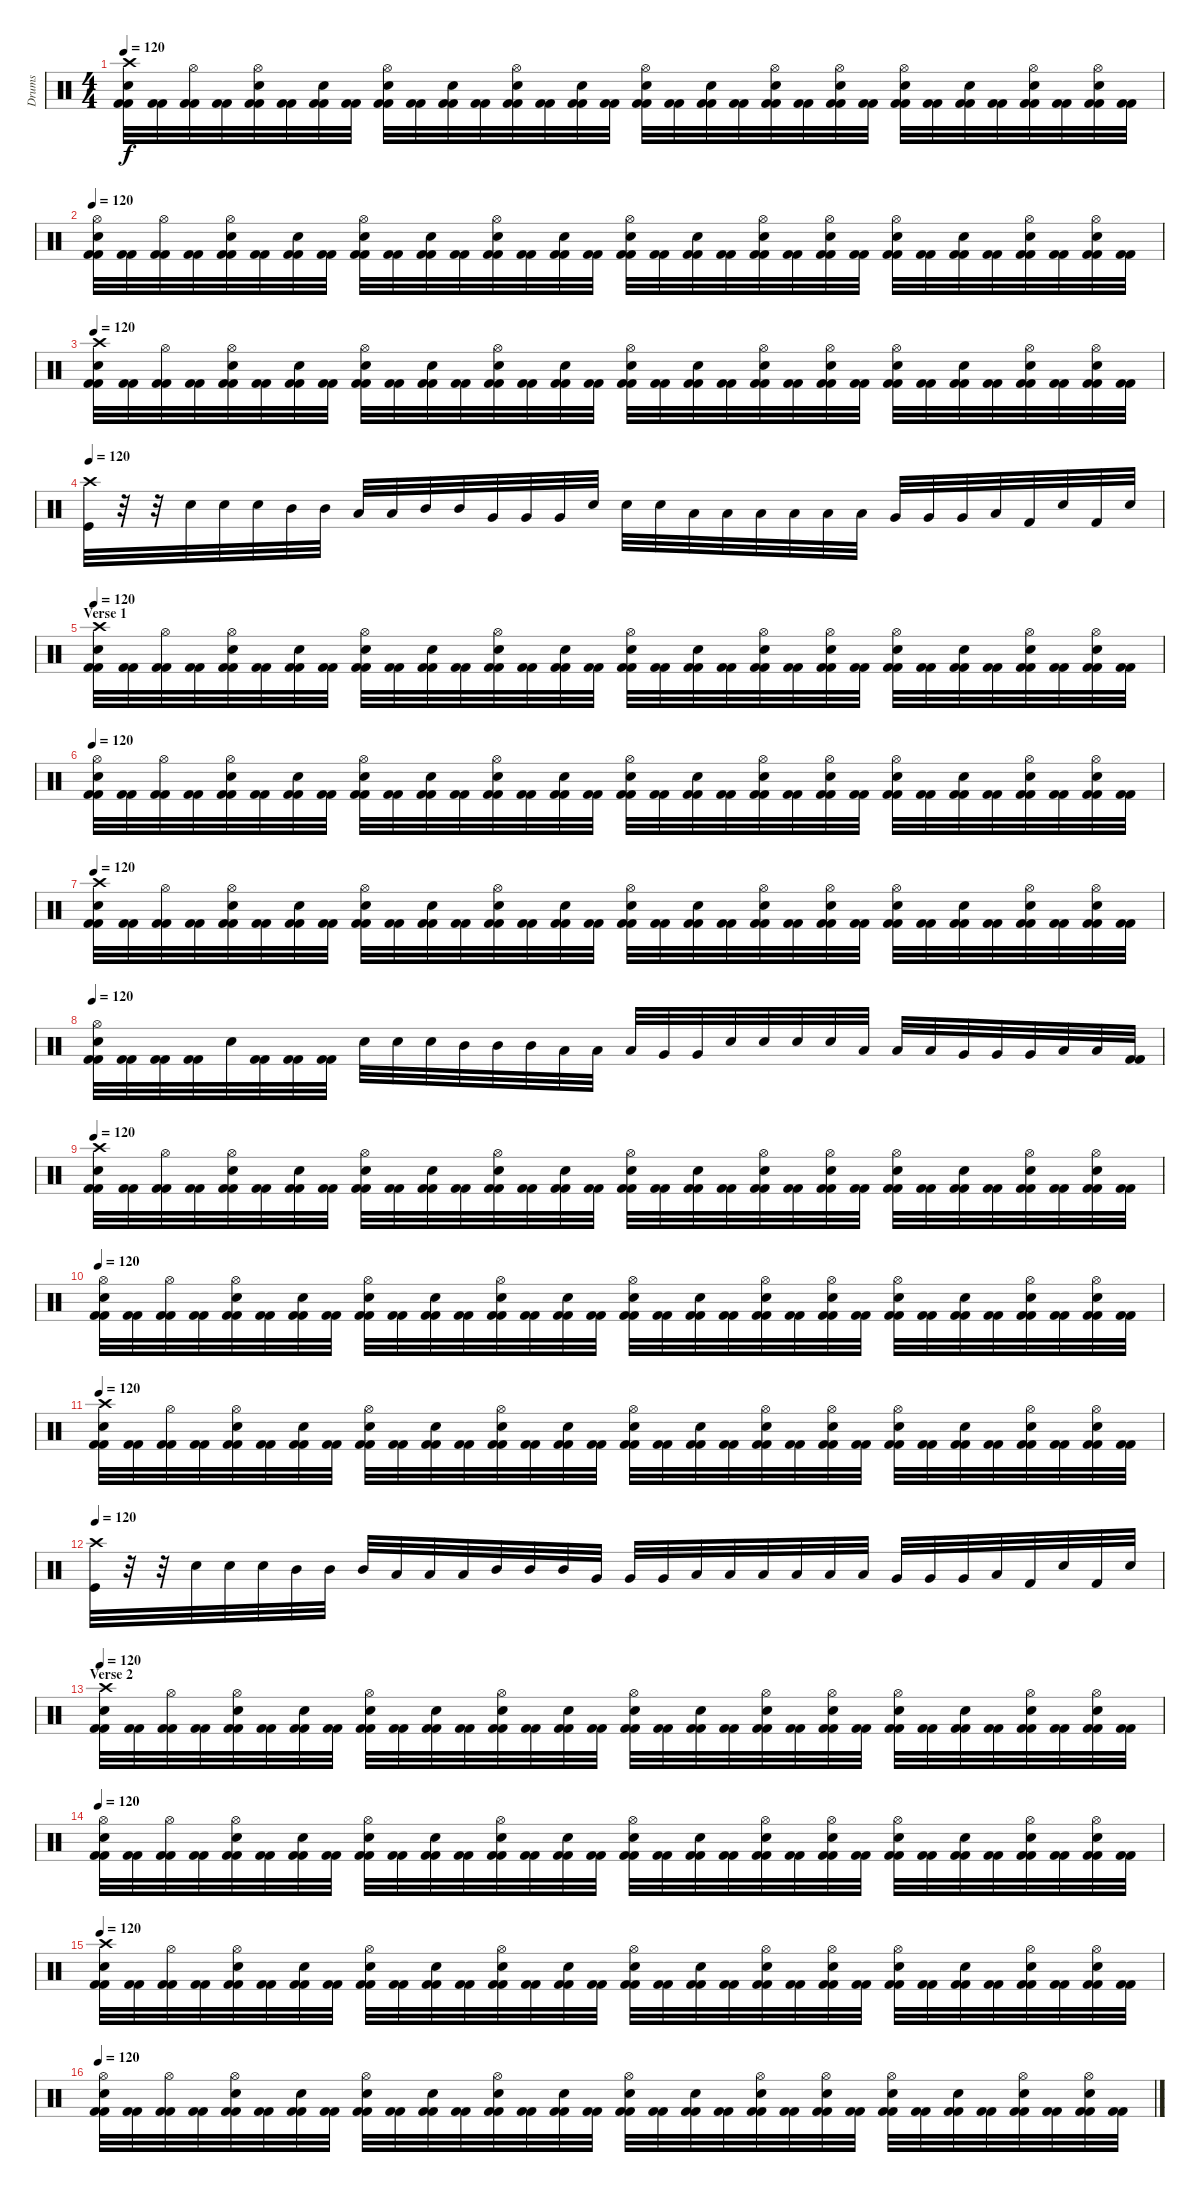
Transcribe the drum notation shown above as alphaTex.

\track ("Drums" "Drums") {instrument percussion}
\staff {score}
\articulation defaults
\ts (4 4)
\tempo 120
\clef neutral
\ks c
("Crash high (hit)" "Electric Snare (hit)" "Kick (hit) 2" "Kick (hit) 2").32{dy f} ("Kick (hit) 2" "Kick (hit) 2").32 ("Hi-Hat (open)" "Kick (hit) 2" "Kick (hit) 2").32 ("Kick (hit) 2" "Kick (hit) 2").32 ("Hi-Hat (open)" "Electric Snare (hit)" "Kick (hit) 2" "Kick (hit) 2").32 ("Kick (hit) 2" "Kick (hit) 2").32 ("Electric Snare (hit)" "Kick (hit) 2" "Kick (hit) 2").32 ("Kick (hit) 2" "Kick (hit) 2").32 ("Hi-Hat (open)" "Electric Snare (hit)" "Kick (hit) 2" "Kick (hit) 2").32 ("Kick (hit) 2" "Kick (hit) 2").32 ("Electric Snare (hit)" "Kick (hit) 2" "Kick (hit) 2").32 ("Kick (hit) 2" "Kick (hit) 2").32 ("Hi-Hat (open)" "Electric Snare (hit)" "Kick (hit) 2" "Kick (hit) 2").32 ("Kick (hit) 2" "Kick (hit) 2").32 ("Electric Snare (hit)" "Kick (hit) 2" "Kick (hit) 2").32 ("Kick (hit) 2" "Kick (hit) 2").32 ("Hi-Hat (open)" "Electric Snare (hit)" "Kick (hit) 2" "Kick (hit) 2").32 ("Kick (hit) 2" "Kick (hit) 2").32 ("Electric Snare (hit)" "Kick (hit) 2" "Kick (hit) 2").32 ("Kick (hit) 2" "Kick (hit) 2").32 ("Hi-Hat (open)" "Electric Snare (hit)" "Kick (hit) 2" "Kick (hit) 2").32 ("Kick (hit) 2" "Kick (hit) 2").32 ("Hi-Hat (open)" "Electric Snare (hit)" "Kick (hit) 2" "Kick (hit) 2").32 ("Kick (hit) 2" "Kick (hit) 2").32 ("Hi-Hat (open)" "Electric Snare (hit)" "Kick (hit) 2" "Kick (hit) 2").32 ("Kick (hit) 2" "Kick (hit) 2").32 ("Electric Snare (hit)" "Kick (hit) 2" "Kick (hit) 2").32 ("Kick (hit) 2" "Kick (hit) 2").32 ("Hi-Hat (open)" "Electric Snare (hit)" "Kick (hit) 2" "Kick (hit) 2").32 ("Kick (hit) 2" "Kick (hit) 2").32 ("Hi-Hat (open)" "Electric Snare (hit)" "Kick (hit) 2" "Kick (hit) 2").32 ("Kick (hit) 2" "Kick (hit) 2").32 |
\tempo 120
("Hi-Hat (open)" "Electric Snare (hit)" "Kick (hit) 2" "Kick (hit) 2").32 ("Kick (hit) 2" "Kick (hit) 2").32 ("Hi-Hat (open)" "Kick (hit) 2" "Kick (hit) 2").32 ("Kick (hit) 2" "Kick (hit) 2").32 ("Hi-Hat (open)" "Electric Snare (hit)" "Kick (hit) 2" "Kick (hit) 2").32 ("Kick (hit) 2" "Kick (hit) 2").32 ("Electric Snare (hit)" "Kick (hit) 2" "Kick (hit) 2").32 ("Kick (hit) 2" "Kick (hit) 2").32 ("Hi-Hat (open)" "Electric Snare (hit)" "Kick (hit) 2" "Kick (hit) 2").32 ("Kick (hit) 2" "Kick (hit) 2").32 ("Electric Snare (hit)" "Kick (hit) 2" "Kick (hit) 2").32 ("Kick (hit) 2" "Kick (hit) 2").32 ("Hi-Hat (open)" "Electric Snare (hit)" "Kick (hit) 2" "Kick (hit) 2").32 ("Kick (hit) 2" "Kick (hit) 2").32 ("Electric Snare (hit)" "Kick (hit) 2" "Kick (hit) 2").32 ("Kick (hit) 2" "Kick (hit) 2").32 ("Hi-Hat (open)" "Electric Snare (hit)" "Kick (hit) 2" "Kick (hit) 2").32 ("Kick (hit) 2" "Kick (hit) 2").32 ("Electric Snare (hit)" "Kick (hit) 2" "Kick (hit) 2").32 ("Kick (hit) 2" "Kick (hit) 2").32 ("Hi-Hat (open)" "Electric Snare (hit)" "Kick (hit) 2" "Kick (hit) 2").32 ("Kick (hit) 2" "Kick (hit) 2").32 ("Hi-Hat (open)" "Electric Snare (hit)" "Kick (hit) 2" "Kick (hit) 2").32 ("Kick (hit) 2" "Kick (hit) 2").32 ("Hi-Hat (open)" "Electric Snare (hit)" "Kick (hit) 2" "Kick (hit) 2").32 ("Kick (hit) 2" "Kick (hit) 2").32 ("Electric Snare (hit)" "Kick (hit) 2" "Kick (hit) 2").32 ("Kick (hit) 2" "Kick (hit) 2").32 ("Hi-Hat (open)" "Electric Snare (hit)" "Kick (hit) 2" "Kick (hit) 2").32 ("Kick (hit) 2" "Kick (hit) 2").32 ("Hi-Hat (open)" "Electric Snare (hit)" "Kick (hit) 2" "Kick (hit) 2").32 ("Kick (hit) 2" "Kick (hit) 2").32 |
\tempo 120
("Crash high (hit)" "Electric Snare (hit)" "Kick (hit) 2" "Kick (hit) 2").32 ("Kick (hit) 2" "Kick (hit) 2").32 ("Hi-Hat (open)" "Kick (hit) 2" "Kick (hit) 2").32 ("Kick (hit) 2" "Kick (hit) 2").32 ("Hi-Hat (open)" "Electric Snare (hit)" "Kick (hit) 2" "Kick (hit) 2").32 ("Kick (hit) 2" "Kick (hit) 2").32 ("Electric Snare (hit)" "Kick (hit) 2" "Kick (hit) 2").32 ("Kick (hit) 2" "Kick (hit) 2").32 ("Hi-Hat (open)" "Electric Snare (hit)" "Kick (hit) 2" "Kick (hit) 2").32 ("Kick (hit) 2" "Kick (hit) 2").32 ("Electric Snare (hit)" "Kick (hit) 2" "Kick (hit) 2").32 ("Kick (hit) 2" "Kick (hit) 2").32 ("Hi-Hat (open)" "Electric Snare (hit)" "Kick (hit) 2" "Kick (hit) 2").32 ("Kick (hit) 2" "Kick (hit) 2").32 ("Electric Snare (hit)" "Kick (hit) 2" "Kick (hit) 2").32 ("Kick (hit) 2" "Kick (hit) 2").32 ("Hi-Hat (open)" "Electric Snare (hit)" "Kick (hit) 2" "Kick (hit) 2").32 ("Kick (hit) 2" "Kick (hit) 2").32 ("Electric Snare (hit)" "Kick (hit) 2" "Kick (hit) 2").32 ("Kick (hit) 2" "Kick (hit) 2").32 ("Hi-Hat (open)" "Electric Snare (hit)" "Kick (hit) 2" "Kick (hit) 2").32 ("Kick (hit) 2" "Kick (hit) 2").32 ("Hi-Hat (open)" "Electric Snare (hit)" "Kick (hit) 2" "Kick (hit) 2").32 ("Kick (hit) 2" "Kick (hit) 2").32 ("Hi-Hat (open)" "Electric Snare (hit)" "Kick (hit) 2" "Kick (hit) 2").32 ("Kick (hit) 2" "Kick (hit) 2").32 ("Electric Snare (hit)" "Kick (hit) 2" "Kick (hit) 2").32 ("Kick (hit) 2" "Kick (hit) 2").32 ("Hi-Hat (open)" "Electric Snare (hit)" "Kick (hit) 2" "Kick (hit) 2").32 ("Kick (hit) 2" "Kick (hit) 2").32 ("Hi-Hat (open)" "Electric Snare (hit)" "Kick (hit) 2" "Kick (hit) 2").32 ("Kick (hit) 2" "Kick (hit) 2").32 |
\tempo 120
("Crash high (hit)" "Kick (hit)").32 r.32 r.32 "Electric Snare (hit)".32 "Electric Snare (hit)".32 "Electric Snare (hit)".32 "Mid Tom (hit)".32 "Mid Tom (hit)".32 "Low Tom (hit)".32 "Low Tom (hit)".32 "Mid Tom (hit)".32 "Mid Tom (hit)".32 "Very Low Tom (hit)".32 "Very Low Tom (hit)".32 "Very Low Tom (hit)".32 "Electric Snare (hit)".32 "Electric Snare (hit)".32 "Electric Snare (hit)".32 "Low Tom (hit)".32 "Low Tom (hit)".32 "Low Tom (hit)".32 "Low Floor Tom (hit)".32 "Low Floor Tom (hit)".32 "Low Floor Tom (hit)".32 "Very Low Tom (hit)".32 "Very Low Tom (hit)".32 "Very Low Tom (hit)".32 "Low Floor Tom (hit)".32 "Kick (hit) 2".32 "Electric Snare (hit)".32 "Kick (hit) 2".32 "Electric Snare (hit)".32 |
\section ("" "Verse 1")
\tempo 120
("Crash high (hit)" "Electric Snare (hit)" "Kick (hit) 2" "Kick (hit) 2").32 ("Kick (hit) 2" "Kick (hit) 2").32 ("Hi-Hat (open)" "Kick (hit) 2" "Kick (hit) 2").32 ("Kick (hit) 2" "Kick (hit) 2").32 ("Hi-Hat (open)" "Electric Snare (hit)" "Kick (hit) 2" "Kick (hit) 2").32 ("Kick (hit) 2" "Kick (hit) 2").32 ("Electric Snare (hit)" "Kick (hit) 2" "Kick (hit) 2").32 ("Kick (hit) 2" "Kick (hit) 2").32 ("Hi-Hat (open)" "Electric Snare (hit)" "Kick (hit) 2" "Kick (hit) 2").32 ("Kick (hit) 2" "Kick (hit) 2").32 ("Electric Snare (hit)" "Kick (hit) 2" "Kick (hit) 2").32 ("Kick (hit) 2" "Kick (hit) 2").32 ("Hi-Hat (open)" "Electric Snare (hit)" "Kick (hit) 2" "Kick (hit) 2").32 ("Kick (hit) 2" "Kick (hit) 2").32 ("Electric Snare (hit)" "Kick (hit) 2" "Kick (hit) 2").32 ("Kick (hit) 2" "Kick (hit) 2").32 ("Hi-Hat (open)" "Electric Snare (hit)" "Kick (hit) 2" "Kick (hit) 2").32 ("Kick (hit) 2" "Kick (hit) 2").32 ("Electric Snare (hit)" "Kick (hit) 2" "Kick (hit) 2").32 ("Kick (hit) 2" "Kick (hit) 2").32 ("Hi-Hat (open)" "Electric Snare (hit)" "Kick (hit) 2" "Kick (hit) 2").32 ("Kick (hit) 2" "Kick (hit) 2").32 ("Hi-Hat (open)" "Electric Snare (hit)" "Kick (hit) 2" "Kick (hit) 2").32 ("Kick (hit) 2" "Kick (hit) 2").32 ("Hi-Hat (open)" "Electric Snare (hit)" "Kick (hit) 2" "Kick (hit) 2").32 ("Kick (hit) 2" "Kick (hit) 2").32 ("Electric Snare (hit)" "Kick (hit) 2" "Kick (hit) 2").32 ("Kick (hit) 2" "Kick (hit) 2").32 ("Hi-Hat (open)" "Electric Snare (hit)" "Kick (hit) 2" "Kick (hit) 2").32 ("Kick (hit) 2" "Kick (hit) 2").32 ("Hi-Hat (open)" "Electric Snare (hit)" "Kick (hit) 2" "Kick (hit) 2").32 ("Kick (hit) 2" "Kick (hit) 2").32 |
\tempo 120
("Hi-Hat (open)" "Electric Snare (hit)" "Kick (hit) 2" "Kick (hit) 2").32 ("Kick (hit) 2" "Kick (hit) 2").32 ("Hi-Hat (open)" "Kick (hit) 2" "Kick (hit) 2").32 ("Kick (hit) 2" "Kick (hit) 2").32 ("Hi-Hat (open)" "Electric Snare (hit)" "Kick (hit) 2" "Kick (hit) 2").32 ("Kick (hit) 2" "Kick (hit) 2").32 ("Electric Snare (hit)" "Kick (hit) 2" "Kick (hit) 2").32 ("Kick (hit) 2" "Kick (hit) 2").32 ("Hi-Hat (open)" "Electric Snare (hit)" "Kick (hit) 2" "Kick (hit) 2").32 ("Kick (hit) 2" "Kick (hit) 2").32 ("Electric Snare (hit)" "Kick (hit) 2" "Kick (hit) 2").32 ("Kick (hit) 2" "Kick (hit) 2").32 ("Hi-Hat (open)" "Electric Snare (hit)" "Kick (hit) 2" "Kick (hit) 2").32 ("Kick (hit) 2" "Kick (hit) 2").32 ("Electric Snare (hit)" "Kick (hit) 2" "Kick (hit) 2").32 ("Kick (hit) 2" "Kick (hit) 2").32 ("Hi-Hat (open)" "Electric Snare (hit)" "Kick (hit) 2" "Kick (hit) 2").32 ("Kick (hit) 2" "Kick (hit) 2").32 ("Electric Snare (hit)" "Kick (hit) 2" "Kick (hit) 2").32 ("Kick (hit) 2" "Kick (hit) 2").32 ("Hi-Hat (open)" "Electric Snare (hit)" "Kick (hit) 2" "Kick (hit) 2").32 ("Kick (hit) 2" "Kick (hit) 2").32 ("Hi-Hat (open)" "Electric Snare (hit)" "Kick (hit) 2" "Kick (hit) 2").32 ("Kick (hit) 2" "Kick (hit) 2").32 ("Hi-Hat (open)" "Electric Snare (hit)" "Kick (hit) 2" "Kick (hit) 2").32 ("Kick (hit) 2" "Kick (hit) 2").32 ("Electric Snare (hit)" "Kick (hit) 2" "Kick (hit) 2").32 ("Kick (hit) 2" "Kick (hit) 2").32 ("Hi-Hat (open)" "Electric Snare (hit)" "Kick (hit) 2" "Kick (hit) 2").32 ("Kick (hit) 2" "Kick (hit) 2").32 ("Hi-Hat (open)" "Electric Snare (hit)" "Kick (hit) 2" "Kick (hit) 2").32 ("Kick (hit) 2" "Kick (hit) 2").32 |
\tempo 120
("Crash high (hit)" "Electric Snare (hit)" "Kick (hit) 2" "Kick (hit) 2").32 ("Kick (hit) 2" "Kick (hit) 2").32 ("Hi-Hat (open)" "Kick (hit) 2" "Kick (hit) 2").32 ("Kick (hit) 2" "Kick (hit) 2").32 ("Hi-Hat (open)" "Electric Snare (hit)" "Kick (hit) 2" "Kick (hit) 2").32 ("Kick (hit) 2" "Kick (hit) 2").32 ("Electric Snare (hit)" "Kick (hit) 2" "Kick (hit) 2").32 ("Kick (hit) 2" "Kick (hit) 2").32 ("Hi-Hat (open)" "Electric Snare (hit)" "Kick (hit) 2" "Kick (hit) 2").32 ("Kick (hit) 2" "Kick (hit) 2").32 ("Electric Snare (hit)" "Kick (hit) 2" "Kick (hit) 2").32 ("Kick (hit) 2" "Kick (hit) 2").32 ("Hi-Hat (open)" "Electric Snare (hit)" "Kick (hit) 2" "Kick (hit) 2").32 ("Kick (hit) 2" "Kick (hit) 2").32 ("Electric Snare (hit)" "Kick (hit) 2" "Kick (hit) 2").32 ("Kick (hit) 2" "Kick (hit) 2").32 ("Hi-Hat (open)" "Electric Snare (hit)" "Kick (hit) 2" "Kick (hit) 2").32 ("Kick (hit) 2" "Kick (hit) 2").32 ("Electric Snare (hit)" "Kick (hit) 2" "Kick (hit) 2").32 ("Kick (hit) 2" "Kick (hit) 2").32 ("Hi-Hat (open)" "Electric Snare (hit)" "Kick (hit) 2" "Kick (hit) 2").32 ("Kick (hit) 2" "Kick (hit) 2").32 ("Hi-Hat (open)" "Electric Snare (hit)" "Kick (hit) 2" "Kick (hit) 2").32 ("Kick (hit) 2" "Kick (hit) 2").32 ("Hi-Hat (open)" "Electric Snare (hit)" "Kick (hit) 2" "Kick (hit) 2").32 ("Kick (hit) 2" "Kick (hit) 2").32 ("Electric Snare (hit)" "Kick (hit) 2" "Kick (hit) 2").32 ("Kick (hit) 2" "Kick (hit) 2").32 ("Hi-Hat (open)" "Electric Snare (hit)" "Kick (hit) 2" "Kick (hit) 2").32 ("Kick (hit) 2" "Kick (hit) 2").32 ("Hi-Hat (open)" "Electric Snare (hit)" "Kick (hit) 2" "Kick (hit) 2").32 ("Kick (hit) 2" "Kick (hit) 2").32 |
\tempo 120
("Hi-Hat (open)" "Electric Snare (hit)" "Kick (hit) 2" "Kick (hit) 2").32 ("Kick (hit) 2" "Kick (hit) 2").32 ("Kick (hit) 2" "Kick (hit) 2").32 ("Kick (hit) 2" "Kick (hit) 2").32 "Electric Snare (hit)".32 ("Kick (hit) 2" "Kick (hit) 2").32 ("Kick (hit) 2" "Kick (hit) 2").32 ("Kick (hit) 2" "Kick (hit) 2").32 "Electric Snare (hit)".32 "Electric Snare (hit)".32 "Electric Snare (hit)".32 "Mid Tom (hit)".32 "Mid Tom (hit)".32 "Mid Tom (hit)".32 "Low Tom (hit)".32 "Low Tom (hit)".32 "Low Tom (hit)".32 "Very Low Tom (hit)".32 "Very Low Tom (hit)".32 "Electric Snare (hit)".32 "Electric Snare (hit)".32 "Electric Snare (hit)".32 "Electric Snare (hit)".32 "Low Tom (hit)".32 "Low Tom (hit)".32 "Low Tom (hit)".32 "Very Low Tom (hit)".32 "Very Low Tom (hit)".32 "Very Low Tom (hit)".32 "Low Floor Tom (hit)".32 "Low Floor Tom (hit)".32 ("Kick (hit) 2" "Kick (hit) 2").32 |
\tempo 120
("Crash high (hit)" "Electric Snare (hit)" "Kick (hit) 2" "Kick (hit) 2").32 ("Kick (hit) 2" "Kick (hit) 2").32 ("Hi-Hat (open)" "Kick (hit) 2" "Kick (hit) 2").32 ("Kick (hit) 2" "Kick (hit) 2").32 ("Hi-Hat (open)" "Electric Snare (hit)" "Kick (hit) 2" "Kick (hit) 2").32 ("Kick (hit) 2" "Kick (hit) 2").32 ("Electric Snare (hit)" "Kick (hit) 2" "Kick (hit) 2").32 ("Kick (hit) 2" "Kick (hit) 2").32 ("Hi-Hat (open)" "Electric Snare (hit)" "Kick (hit) 2" "Kick (hit) 2").32 ("Kick (hit) 2" "Kick (hit) 2").32 ("Electric Snare (hit)" "Kick (hit) 2" "Kick (hit) 2").32 ("Kick (hit) 2" "Kick (hit) 2").32 ("Hi-Hat (open)" "Electric Snare (hit)" "Kick (hit) 2" "Kick (hit) 2").32 ("Kick (hit) 2" "Kick (hit) 2").32 ("Electric Snare (hit)" "Kick (hit) 2" "Kick (hit) 2").32 ("Kick (hit) 2" "Kick (hit) 2").32 ("Hi-Hat (open)" "Electric Snare (hit)" "Kick (hit) 2" "Kick (hit) 2").32 ("Kick (hit) 2" "Kick (hit) 2").32 ("Electric Snare (hit)" "Kick (hit) 2" "Kick (hit) 2").32 ("Kick (hit) 2" "Kick (hit) 2").32 ("Hi-Hat (open)" "Electric Snare (hit)" "Kick (hit) 2" "Kick (hit) 2").32 ("Kick (hit) 2" "Kick (hit) 2").32 ("Hi-Hat (open)" "Electric Snare (hit)" "Kick (hit) 2" "Kick (hit) 2").32 ("Kick (hit) 2" "Kick (hit) 2").32 ("Hi-Hat (open)" "Electric Snare (hit)" "Kick (hit) 2" "Kick (hit) 2").32 ("Kick (hit) 2" "Kick (hit) 2").32 ("Electric Snare (hit)" "Kick (hit) 2" "Kick (hit) 2").32 ("Kick (hit) 2" "Kick (hit) 2").32 ("Hi-Hat (open)" "Electric Snare (hit)" "Kick (hit) 2" "Kick (hit) 2").32 ("Kick (hit) 2" "Kick (hit) 2").32 ("Hi-Hat (open)" "Electric Snare (hit)" "Kick (hit) 2" "Kick (hit) 2").32 ("Kick (hit) 2" "Kick (hit) 2").32 |
\tempo 120
("Hi-Hat (open)" "Electric Snare (hit)" "Kick (hit) 2" "Kick (hit) 2").32 ("Kick (hit) 2" "Kick (hit) 2").32 ("Hi-Hat (open)" "Kick (hit) 2" "Kick (hit) 2").32 ("Kick (hit) 2" "Kick (hit) 2").32 ("Hi-Hat (open)" "Electric Snare (hit)" "Kick (hit) 2" "Kick (hit) 2").32 ("Kick (hit) 2" "Kick (hit) 2").32 ("Electric Snare (hit)" "Kick (hit) 2" "Kick (hit) 2").32 ("Kick (hit) 2" "Kick (hit) 2").32 ("Hi-Hat (open)" "Electric Snare (hit)" "Kick (hit) 2" "Kick (hit) 2").32 ("Kick (hit) 2" "Kick (hit) 2").32 ("Electric Snare (hit)" "Kick (hit) 2" "Kick (hit) 2").32 ("Kick (hit) 2" "Kick (hit) 2").32 ("Hi-Hat (open)" "Electric Snare (hit)" "Kick (hit) 2" "Kick (hit) 2").32 ("Kick (hit) 2" "Kick (hit) 2").32 ("Electric Snare (hit)" "Kick (hit) 2" "Kick (hit) 2").32 ("Kick (hit) 2" "Kick (hit) 2").32 ("Hi-Hat (open)" "Electric Snare (hit)" "Kick (hit) 2" "Kick (hit) 2").32 ("Kick (hit) 2" "Kick (hit) 2").32 ("Electric Snare (hit)" "Kick (hit) 2" "Kick (hit) 2").32 ("Kick (hit) 2" "Kick (hit) 2").32 ("Hi-Hat (open)" "Electric Snare (hit)" "Kick (hit) 2" "Kick (hit) 2").32 ("Kick (hit) 2" "Kick (hit) 2").32 ("Hi-Hat (open)" "Electric Snare (hit)" "Kick (hit) 2" "Kick (hit) 2").32 ("Kick (hit) 2" "Kick (hit) 2").32 ("Hi-Hat (open)" "Electric Snare (hit)" "Kick (hit) 2" "Kick (hit) 2").32 ("Kick (hit) 2" "Kick (hit) 2").32 ("Electric Snare (hit)" "Kick (hit) 2" "Kick (hit) 2").32 ("Kick (hit) 2" "Kick (hit) 2").32 ("Hi-Hat (open)" "Electric Snare (hit)" "Kick (hit) 2" "Kick (hit) 2").32 ("Kick (hit) 2" "Kick (hit) 2").32 ("Hi-Hat (open)" "Electric Snare (hit)" "Kick (hit) 2" "Kick (hit) 2").32 ("Kick (hit) 2" "Kick (hit) 2").32 |
\tempo 120
("Crash high (hit)" "Electric Snare (hit)" "Kick (hit) 2" "Kick (hit) 2").32 ("Kick (hit) 2" "Kick (hit) 2").32 ("Hi-Hat (open)" "Kick (hit) 2" "Kick (hit) 2").32 ("Kick (hit) 2" "Kick (hit) 2").32 ("Hi-Hat (open)" "Electric Snare (hit)" "Kick (hit) 2" "Kick (hit) 2").32 ("Kick (hit) 2" "Kick (hit) 2").32 ("Electric Snare (hit)" "Kick (hit) 2" "Kick (hit) 2").32 ("Kick (hit) 2" "Kick (hit) 2").32 ("Hi-Hat (open)" "Electric Snare (hit)" "Kick (hit) 2" "Kick (hit) 2").32 ("Kick (hit) 2" "Kick (hit) 2").32 ("Electric Snare (hit)" "Kick (hit) 2" "Kick (hit) 2").32 ("Kick (hit) 2" "Kick (hit) 2").32 ("Hi-Hat (open)" "Electric Snare (hit)" "Kick (hit) 2" "Kick (hit) 2").32 ("Kick (hit) 2" "Kick (hit) 2").32 ("Electric Snare (hit)" "Kick (hit) 2" "Kick (hit) 2").32 ("Kick (hit) 2" "Kick (hit) 2").32 ("Hi-Hat (open)" "Electric Snare (hit)" "Kick (hit) 2" "Kick (hit) 2").32 ("Kick (hit) 2" "Kick (hit) 2").32 ("Electric Snare (hit)" "Kick (hit) 2" "Kick (hit) 2").32 ("Kick (hit) 2" "Kick (hit) 2").32 ("Hi-Hat (open)" "Electric Snare (hit)" "Kick (hit) 2" "Kick (hit) 2").32 ("Kick (hit) 2" "Kick (hit) 2").32 ("Hi-Hat (open)" "Electric Snare (hit)" "Kick (hit) 2" "Kick (hit) 2").32 ("Kick (hit) 2" "Kick (hit) 2").32 ("Hi-Hat (open)" "Electric Snare (hit)" "Kick (hit) 2" "Kick (hit) 2").32 ("Kick (hit) 2" "Kick (hit) 2").32 ("Electric Snare (hit)" "Kick (hit) 2" "Kick (hit) 2").32 ("Kick (hit) 2" "Kick (hit) 2").32 ("Hi-Hat (open)" "Electric Snare (hit)" "Kick (hit) 2" "Kick (hit) 2").32 ("Kick (hit) 2" "Kick (hit) 2").32 ("Hi-Hat (open)" "Electric Snare (hit)" "Kick (hit) 2" "Kick (hit) 2").32 ("Kick (hit) 2" "Kick (hit) 2").32 |
\tempo 120
("Crash high (hit)" "Kick (hit)").32 r.32 r.32 "Electric Snare (hit)".32 "Electric Snare (hit)".32 "Electric Snare (hit)".32 "Mid Tom (hit)".32 "Mid Tom (hit)".32 "Mid Tom (hit)".32 "Low Tom (hit)".32 "Low Tom (hit)".32 "Low Tom (hit)".32 "Mid Tom (hit)".32 "Mid Tom (hit)".32 "Mid Tom (hit)".32 "Very Low Tom (hit)".32 "Very Low Tom (hit)".32 "Very Low Tom (hit)".32 "Low Tom (hit)".32 "Low Tom (hit)".32 "Low Tom (hit)".32 "Low Floor Tom (hit)".32 "Low Floor Tom (hit)".32 "Low Floor Tom (hit)".32 "Very Low Tom (hit)".32 "Very Low Tom (hit)".32 "Very Low Tom (hit)".32 "Low Floor Tom (hit)".32 "Kick (hit) 2".32 "Electric Snare (hit)".32 "Kick (hit) 2".32 "Electric Snare (hit)".32 |
\section ("" "Verse 2")
\tempo 120
("Crash high (hit)" "Electric Snare (hit)" "Kick (hit) 2" "Kick (hit) 2").32 ("Kick (hit) 2" "Kick (hit) 2").32 ("Hi-Hat (open)" "Kick (hit) 2" "Kick (hit) 2").32 ("Kick (hit) 2" "Kick (hit) 2").32 ("Hi-Hat (open)" "Electric Snare (hit)" "Kick (hit) 2" "Kick (hit) 2").32 ("Kick (hit) 2" "Kick (hit) 2").32 ("Electric Snare (hit)" "Kick (hit) 2" "Kick (hit) 2").32 ("Kick (hit) 2" "Kick (hit) 2").32 ("Hi-Hat (open)" "Electric Snare (hit)" "Kick (hit) 2" "Kick (hit) 2").32 ("Kick (hit) 2" "Kick (hit) 2").32 ("Electric Snare (hit)" "Kick (hit) 2" "Kick (hit) 2").32 ("Kick (hit) 2" "Kick (hit) 2").32 ("Hi-Hat (open)" "Electric Snare (hit)" "Kick (hit) 2" "Kick (hit) 2").32 ("Kick (hit) 2" "Kick (hit) 2").32 ("Electric Snare (hit)" "Kick (hit) 2" "Kick (hit) 2").32 ("Kick (hit) 2" "Kick (hit) 2").32 ("Hi-Hat (open)" "Electric Snare (hit)" "Kick (hit) 2" "Kick (hit) 2").32 ("Kick (hit) 2" "Kick (hit) 2").32 ("Electric Snare (hit)" "Kick (hit) 2" "Kick (hit) 2").32 ("Kick (hit) 2" "Kick (hit) 2").32 ("Hi-Hat (open)" "Electric Snare (hit)" "Kick (hit) 2" "Kick (hit) 2").32 ("Kick (hit) 2" "Kick (hit) 2").32 ("Hi-Hat (open)" "Electric Snare (hit)" "Kick (hit) 2" "Kick (hit) 2").32 ("Kick (hit) 2" "Kick (hit) 2").32 ("Hi-Hat (open)" "Electric Snare (hit)" "Kick (hit) 2" "Kick (hit) 2").32 ("Kick (hit) 2" "Kick (hit) 2").32 ("Electric Snare (hit)" "Kick (hit) 2" "Kick (hit) 2").32 ("Kick (hit) 2" "Kick (hit) 2").32 ("Hi-Hat (open)" "Electric Snare (hit)" "Kick (hit) 2" "Kick (hit) 2").32 ("Kick (hit) 2" "Kick (hit) 2").32 ("Hi-Hat (open)" "Electric Snare (hit)" "Kick (hit) 2" "Kick (hit) 2").32 ("Kick (hit) 2" "Kick (hit) 2").32 |
\tempo 120
("Hi-Hat (open)" "Electric Snare (hit)" "Kick (hit) 2" "Kick (hit) 2").32 ("Kick (hit) 2" "Kick (hit) 2").32 ("Hi-Hat (open)" "Kick (hit) 2" "Kick (hit) 2").32 ("Kick (hit) 2" "Kick (hit) 2").32 ("Hi-Hat (open)" "Electric Snare (hit)" "Kick (hit) 2" "Kick (hit) 2").32 ("Kick (hit) 2" "Kick (hit) 2").32 ("Electric Snare (hit)" "Kick (hit) 2" "Kick (hit) 2").32 ("Kick (hit) 2" "Kick (hit) 2").32 ("Hi-Hat (open)" "Electric Snare (hit)" "Kick (hit) 2" "Kick (hit) 2").32 ("Kick (hit) 2" "Kick (hit) 2").32 ("Electric Snare (hit)" "Kick (hit) 2" "Kick (hit) 2").32 ("Kick (hit) 2" "Kick (hit) 2").32 ("Hi-Hat (open)" "Electric Snare (hit)" "Kick (hit) 2" "Kick (hit) 2").32 ("Kick (hit) 2" "Kick (hit) 2").32 ("Electric Snare (hit)" "Kick (hit) 2" "Kick (hit) 2").32 ("Kick (hit) 2" "Kick (hit) 2").32 ("Hi-Hat (open)" "Electric Snare (hit)" "Kick (hit) 2" "Kick (hit) 2").32 ("Kick (hit) 2" "Kick (hit) 2").32 ("Electric Snare (hit)" "Kick (hit) 2" "Kick (hit) 2").32 ("Kick (hit) 2" "Kick (hit) 2").32 ("Hi-Hat (open)" "Electric Snare (hit)" "Kick (hit) 2" "Kick (hit) 2").32 ("Kick (hit) 2" "Kick (hit) 2").32 ("Hi-Hat (open)" "Electric Snare (hit)" "Kick (hit) 2" "Kick (hit) 2").32 ("Kick (hit) 2" "Kick (hit) 2").32 ("Hi-Hat (open)" "Electric Snare (hit)" "Kick (hit) 2" "Kick (hit) 2").32 ("Kick (hit) 2" "Kick (hit) 2").32 ("Electric Snare (hit)" "Kick (hit) 2" "Kick (hit) 2").32 ("Kick (hit) 2" "Kick (hit) 2").32 ("Hi-Hat (open)" "Electric Snare (hit)" "Kick (hit) 2" "Kick (hit) 2").32 ("Kick (hit) 2" "Kick (hit) 2").32 ("Hi-Hat (open)" "Electric Snare (hit)" "Kick (hit) 2" "Kick (hit) 2").32 ("Kick (hit) 2" "Kick (hit) 2").32 |
\tempo 120
("Crash high (hit)" "Electric Snare (hit)" "Kick (hit) 2" "Kick (hit) 2").32 ("Kick (hit) 2" "Kick (hit) 2").32 ("Hi-Hat (open)" "Kick (hit) 2" "Kick (hit) 2").32 ("Kick (hit) 2" "Kick (hit) 2").32 ("Hi-Hat (open)" "Electric Snare (hit)" "Kick (hit) 2" "Kick (hit) 2").32 ("Kick (hit) 2" "Kick (hit) 2").32 ("Electric Snare (hit)" "Kick (hit) 2" "Kick (hit) 2").32 ("Kick (hit) 2" "Kick (hit) 2").32 ("Hi-Hat (open)" "Electric Snare (hit)" "Kick (hit) 2" "Kick (hit) 2").32 ("Kick (hit) 2" "Kick (hit) 2").32 ("Electric Snare (hit)" "Kick (hit) 2" "Kick (hit) 2").32 ("Kick (hit) 2" "Kick (hit) 2").32 ("Hi-Hat (open)" "Electric Snare (hit)" "Kick (hit) 2" "Kick (hit) 2").32 ("Kick (hit) 2" "Kick (hit) 2").32 ("Electric Snare (hit)" "Kick (hit) 2" "Kick (hit) 2").32 ("Kick (hit) 2" "Kick (hit) 2").32 ("Hi-Hat (open)" "Electric Snare (hit)" "Kick (hit) 2" "Kick (hit) 2").32 ("Kick (hit) 2" "Kick (hit) 2").32 ("Electric Snare (hit)" "Kick (hit) 2" "Kick (hit) 2").32 ("Kick (hit) 2" "Kick (hit) 2").32 ("Hi-Hat (open)" "Electric Snare (hit)" "Kick (hit) 2" "Kick (hit) 2").32 ("Kick (hit) 2" "Kick (hit) 2").32 ("Hi-Hat (open)" "Electric Snare (hit)" "Kick (hit) 2" "Kick (hit) 2").32 ("Kick (hit) 2" "Kick (hit) 2").32 ("Hi-Hat (open)" "Electric Snare (hit)" "Kick (hit) 2" "Kick (hit) 2").32 ("Kick (hit) 2" "Kick (hit) 2").32 ("Electric Snare (hit)" "Kick (hit) 2" "Kick (hit) 2").32 ("Kick (hit) 2" "Kick (hit) 2").32 ("Hi-Hat (open)" "Electric Snare (hit)" "Kick (hit) 2" "Kick (hit) 2").32 ("Kick (hit) 2" "Kick (hit) 2").32 ("Hi-Hat (open)" "Electric Snare (hit)" "Kick (hit) 2" "Kick (hit) 2").32 ("Kick (hit) 2" "Kick (hit) 2").32 |
\tempo 120
("Hi-Hat (open)" "Electric Snare (hit)" "Kick (hit) 2" "Kick (hit) 2").32 ("Kick (hit) 2" "Kick (hit) 2").32 ("Hi-Hat (open)" "Kick (hit) 2" "Kick (hit) 2").32 ("Kick (hit) 2" "Kick (hit) 2").32 ("Hi-Hat (open)" "Electric Snare (hit)" "Kick (hit) 2" "Kick (hit) 2").32 ("Kick (hit) 2" "Kick (hit) 2").32 ("Electric Snare (hit)" "Kick (hit) 2" "Kick (hit) 2").32 ("Kick (hit) 2" "Kick (hit) 2").32 ("Hi-Hat (open)" "Electric Snare (hit)" "Kick (hit) 2" "Kick (hit) 2").32 ("Kick (hit) 2" "Kick (hit) 2").32 ("Electric Snare (hit)" "Kick (hit) 2" "Kick (hit) 2").32 ("Kick (hit) 2" "Kick (hit) 2").32 ("Hi-Hat (open)" "Electric Snare (hit)" "Kick (hit) 2" "Kick (hit) 2").32 ("Kick (hit) 2" "Kick (hit) 2").32 ("Electric Snare (hit)" "Kick (hit) 2" "Kick (hit) 2").32 ("Kick (hit) 2" "Kick (hit) 2").32 ("Hi-Hat (open)" "Electric Snare (hit)" "Kick (hit) 2" "Kick (hit) 2").32 ("Kick (hit) 2" "Kick (hit) 2").32 ("Electric Snare (hit)" "Kick (hit) 2" "Kick (hit) 2").32 ("Kick (hit) 2" "Kick (hit) 2").32 ("Hi-Hat (open)" "Electric Snare (hit)" "Kick (hit) 2" "Kick (hit) 2").32 ("Kick (hit) 2" "Kick (hit) 2").32 ("Hi-Hat (open)" "Electric Snare (hit)" "Kick (hit) 2" "Kick (hit) 2").32 ("Kick (hit) 2" "Kick (hit) 2").32 ("Hi-Hat (open)" "Electric Snare (hit)" "Kick (hit) 2" "Kick (hit) 2").32 ("Kick (hit) 2" "Kick (hit) 2").32 ("Electric Snare (hit)" "Kick (hit) 2" "Kick (hit) 2").32 ("Kick (hit) 2" "Kick (hit) 2").32 ("Hi-Hat (open)" "Electric Snare (hit)" "Kick (hit) 2" "Kick (hit) 2").32 ("Kick (hit) 2" "Kick (hit) 2").32 ("Hi-Hat (open)" "Electric Snare (hit)" "Kick (hit) 2" "Kick (hit) 2").32 ("Kick (hit) 2" "Kick (hit) 2").32
